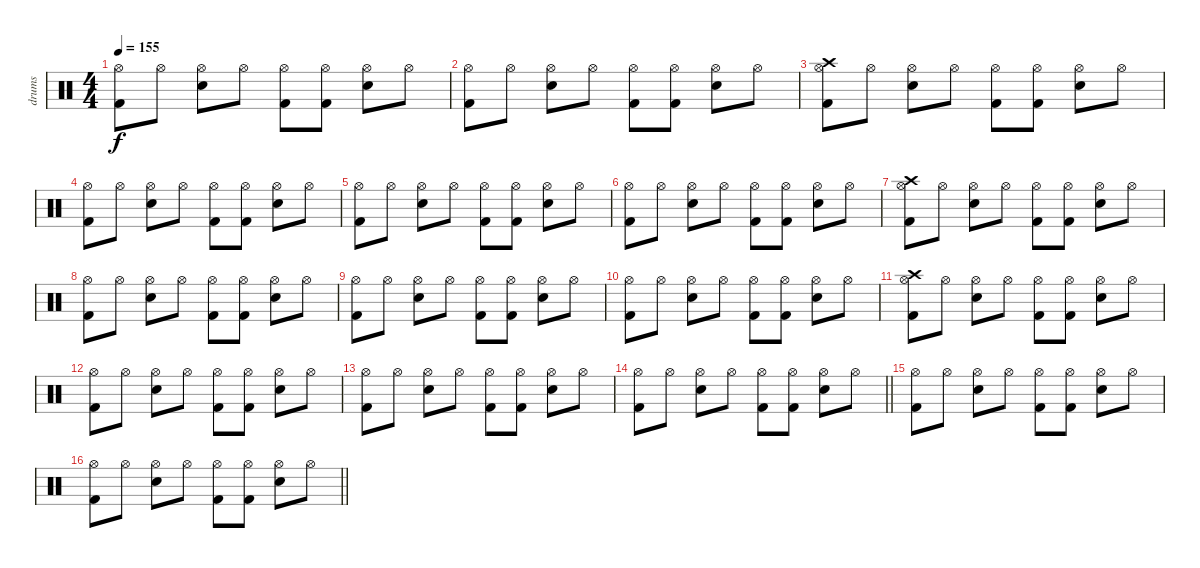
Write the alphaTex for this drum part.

\track ("drums" "drums") {instrument percussion}
\staff {score}
\articulation defaults
\ts (4 4)
\tempo 155
\clef neutral
\ks c
("Kick (hit) 2" "Hi-Hat (open)").8{dy f} "Hi-Hat (open)".8 ("Electric Snare (hit)" "Hi-Hat (open)").8 "Hi-Hat (open)".8 ("Kick (hit) 2" "Hi-Hat (open)").8 ("Kick (hit) 2" "Hi-Hat (open)").8 ("Electric Snare (hit)" "Hi-Hat (open)").8 "Hi-Hat (open)".8 |
("Kick (hit) 2" "Hi-Hat (open)").8 "Hi-Hat (open)".8 ("Electric Snare (hit)" "Hi-Hat (open)").8 "Hi-Hat (open)".8 ("Kick (hit) 2" "Hi-Hat (open)").8 ("Kick (hit) 2" "Hi-Hat (open)").8 ("Electric Snare (hit)" "Hi-Hat (open)").8 "Hi-Hat (open)".8 |
("Kick (hit) 2" "Hi-Hat (open)" "Crash high (hit)").8 "Hi-Hat (open)".8 ("Electric Snare (hit)" "Hi-Hat (open)").8 "Hi-Hat (open)".8 ("Kick (hit) 2" "Hi-Hat (open)").8 ("Kick (hit) 2" "Hi-Hat (open)").8 ("Electric Snare (hit)" "Hi-Hat (open)").8 "Hi-Hat (open)".8 |
("Kick (hit) 2" "Hi-Hat (open)").8 "Hi-Hat (open)".8 ("Electric Snare (hit)" "Hi-Hat (open)").8 "Hi-Hat (open)".8 ("Kick (hit) 2" "Hi-Hat (open)").8 ("Kick (hit) 2" "Hi-Hat (open)").8 ("Electric Snare (hit)" "Hi-Hat (open)").8 "Hi-Hat (open)".8 |
("Kick (hit) 2" "Hi-Hat (open)").8 "Hi-Hat (open)".8 ("Electric Snare (hit)" "Hi-Hat (open)").8 "Hi-Hat (open)".8 ("Kick (hit) 2" "Hi-Hat (open)").8 ("Kick (hit) 2" "Hi-Hat (open)").8 ("Electric Snare (hit)" "Hi-Hat (open)").8 "Hi-Hat (open)".8 |
("Kick (hit) 2" "Hi-Hat (open)").8 "Hi-Hat (open)".8 ("Electric Snare (hit)" "Hi-Hat (open)").8 "Hi-Hat (open)".8 ("Kick (hit) 2" "Hi-Hat (open)").8 ("Kick (hit) 2" "Hi-Hat (open)").8 ("Electric Snare (hit)" "Hi-Hat (open)").8 "Hi-Hat (open)".8 |
("Kick (hit) 2" "Hi-Hat (open)" "Crash high (hit)").8 "Hi-Hat (open)".8 ("Electric Snare (hit)" "Hi-Hat (open)").8 "Hi-Hat (open)".8 ("Kick (hit) 2" "Hi-Hat (open)").8 ("Kick (hit) 2" "Hi-Hat (open)").8 ("Electric Snare (hit)" "Hi-Hat (open)").8 "Hi-Hat (open)".8 |
("Kick (hit) 2" "Hi-Hat (open)").8 "Hi-Hat (open)".8 ("Electric Snare (hit)" "Hi-Hat (open)").8 "Hi-Hat (open)".8 ("Kick (hit) 2" "Hi-Hat (open)").8 ("Kick (hit) 2" "Hi-Hat (open)").8 ("Electric Snare (hit)" "Hi-Hat (open)").8 "Hi-Hat (open)".8 |
("Kick (hit) 2" "Hi-Hat (open)").8 "Hi-Hat (open)".8 ("Electric Snare (hit)" "Hi-Hat (open)").8 "Hi-Hat (open)".8 ("Kick (hit) 2" "Hi-Hat (open)").8 ("Kick (hit) 2" "Hi-Hat (open)").8 ("Electric Snare (hit)" "Hi-Hat (open)").8 "Hi-Hat (open)".8 |
("Kick (hit) 2" "Hi-Hat (open)").8 "Hi-Hat (open)".8 ("Electric Snare (hit)" "Hi-Hat (open)").8 "Hi-Hat (open)".8 ("Kick (hit) 2" "Hi-Hat (open)").8 ("Kick (hit) 2" "Hi-Hat (open)").8 ("Electric Snare (hit)" "Hi-Hat (open)").8 "Hi-Hat (open)".8 |
("Kick (hit) 2" "Hi-Hat (open)" "Crash high (hit)").8 "Hi-Hat (open)".8 ("Electric Snare (hit)" "Hi-Hat (open)").8 "Hi-Hat (open)".8 ("Kick (hit) 2" "Hi-Hat (open)").8 ("Kick (hit) 2" "Hi-Hat (open)").8 ("Electric Snare (hit)" "Hi-Hat (open)").8 "Hi-Hat (open)".8 |
("Kick (hit) 2" "Hi-Hat (open)").8 "Hi-Hat (open)".8 ("Electric Snare (hit)" "Hi-Hat (open)").8 "Hi-Hat (open)".8 ("Kick (hit) 2" "Hi-Hat (open)").8 ("Kick (hit) 2" "Hi-Hat (open)").8 ("Electric Snare (hit)" "Hi-Hat (open)").8 "Hi-Hat (open)".8 |
("Kick (hit) 2" "Hi-Hat (open)").8 "Hi-Hat (open)".8 ("Electric Snare (hit)" "Hi-Hat (open)").8 "Hi-Hat (open)".8 ("Kick (hit) 2" "Hi-Hat (open)").8 ("Kick (hit) 2" "Hi-Hat (open)").8 ("Electric Snare (hit)" "Hi-Hat (open)").8 "Hi-Hat (open)".8 |
\barLineRight lightlight
("Kick (hit) 2" "Hi-Hat (open)").8 "Hi-Hat (open)".8 ("Electric Snare (hit)" "Hi-Hat (open)").8 "Hi-Hat (open)".8 ("Kick (hit) 2" "Hi-Hat (open)").8 ("Kick (hit) 2" "Hi-Hat (open)").8 ("Electric Snare (hit)" "Hi-Hat (open)").8 "Hi-Hat (open)".8 |
("Kick (hit) 2" "Hi-Hat (open)").8 "Hi-Hat (open)".8 ("Electric Snare (hit)" "Hi-Hat (open)").8 "Hi-Hat (open)".8 ("Kick (hit) 2" "Hi-Hat (open)").8 ("Kick (hit) 2" "Hi-Hat (open)").8 ("Electric Snare (hit)" "Hi-Hat (open)").8 "Hi-Hat (open)".8 |
\barLineRight lightlight
("Kick (hit) 2" "Hi-Hat (open)").8 "Hi-Hat (open)".8 ("Electric Snare (hit)" "Hi-Hat (open)").8 "Hi-Hat (open)".8 ("Kick (hit) 2" "Hi-Hat (open)").8 ("Kick (hit) 2" "Hi-Hat (open)").8 ("Electric Snare (hit)" "Hi-Hat (open)").8 "Hi-Hat (open)".8
